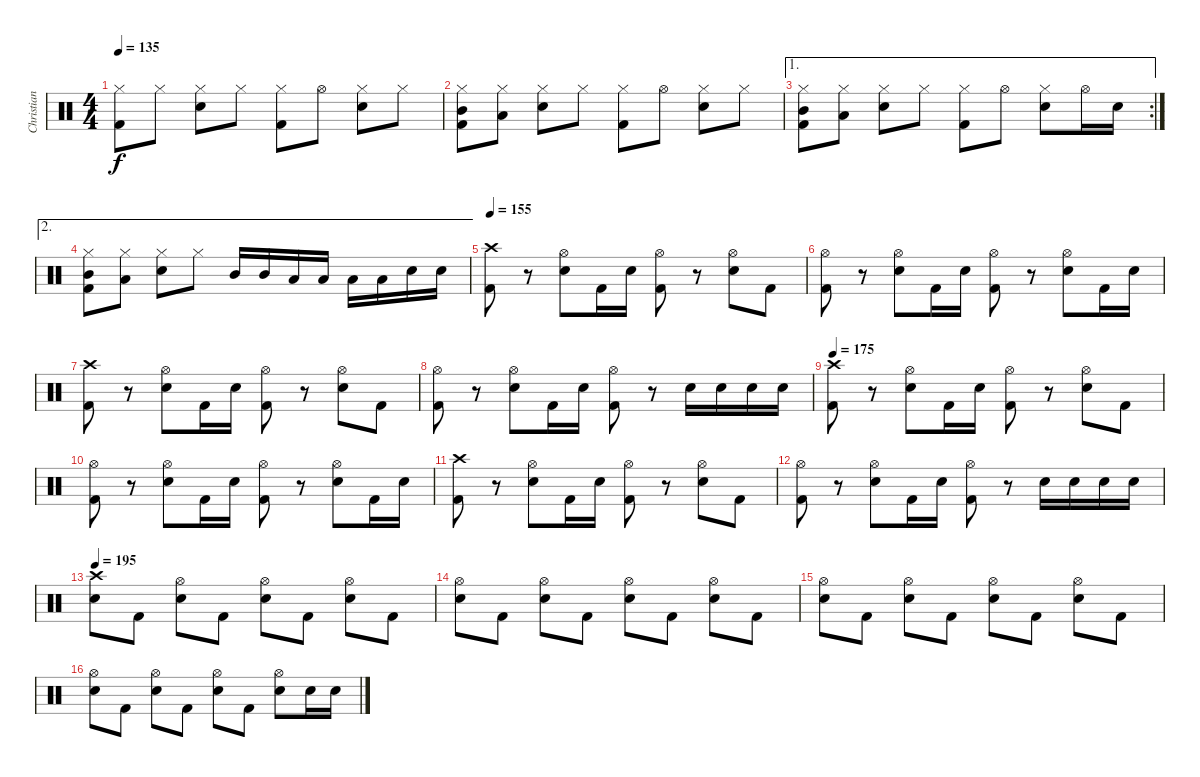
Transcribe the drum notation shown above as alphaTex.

\track ("Christian" "Christian") {instrument percussion}
\staff {score}
\articulation defaults
\ts (4 4)
\tempo 135
\clef neutral
\ks c
("Hi-Hat (closed)" "Kick (hit) 2").8{dy f} "Hi-Hat (closed)".8 ("Hi-Hat (closed)" "Snare (hit) 2").8 "Hi-Hat (closed)".8 ("Hi-Hat (closed)" "Kick (hit) 2").8 "Hi-Hat (open)".8 ("Hi-Hat (closed)" "Snare (hit) 2").8 "Hi-Hat (closed)".8 |
("Hi-Hat (closed)" "Mid Tom (hit)" "Kick (hit) 2").8 ("Hi-Hat (closed)" "Low Tom (hit)").8 ("Hi-Hat (closed)" "Snare (hit) 2").8 "Hi-Hat (closed)".8 ("Hi-Hat (closed)" "Kick (hit) 2").8 "Hi-Hat (open)".8 ("Hi-Hat (closed)" "Snare (hit) 2").8 "Hi-Hat (closed)".8 |
\ae 1
\rc 2
("Hi-Hat (closed)" "Mid Tom (hit)" "Kick (hit) 2").8 ("Hi-Hat (closed)" "Low Tom (hit)").8 ("Hi-Hat (closed)" "Snare (hit) 2").8 "Hi-Hat (closed)".8 ("Hi-Hat (closed)" "Kick (hit) 2").8 "Hi-Hat (open)".8 ("Hi-Hat (closed)" "Snare (hit) 2").8 "Hi-Hat (open)".16 "Snare (hit) 2".16 |
\ae 2
("Hi-Hat (closed)" "Mid Tom (hit)" "Kick (hit) 2").8 ("Hi-Hat (closed)" "Low Tom (hit)").8 ("Hi-Hat (closed)" "Snare (hit) 2").8 "Hi-Hat (closed)".8 "Mid Tom (hit)".16 "Mid Tom (hit)".16 "Low Tom (hit)".16 "Low Tom (hit)".16 "Low Floor Tom (hit)".16 "Low Floor Tom (hit)".16 "Snare (hit) 2".16 "Snare (hit) 2".16 |
\tempo 155
("Crash high (hit)" "Kick (hit) 2").8 r.8 ("Hi-Hat (open)" "Snare (hit) 2").8 "Kick (hit) 2".16 "Snare (hit) 2".16 ("Hi-Hat (open)" "Kick (hit) 2").8 r.8 ("Hi-Hat (open)" "Snare (hit) 2").8 "Kick (hit) 2".8 |
("Hi-Hat (open)" "Kick (hit) 2").8 r.8 ("Hi-Hat (open)" "Snare (hit) 2").8 "Kick (hit) 2".16 "Snare (hit) 2".16 ("Hi-Hat (open)" "Kick (hit) 2").8 r.8 ("Hi-Hat (open)" "Snare (hit) 2").8 "Kick (hit) 2".16 "Snare (hit) 2".16 |
("Crash high (hit)" "Kick (hit) 2").8 r.8 ("Hi-Hat (open)" "Snare (hit) 2").8 "Kick (hit) 2".16 "Snare (hit) 2".16 ("Hi-Hat (open)" "Kick (hit) 2").8 r.8 ("Hi-Hat (open)" "Snare (hit) 2").8 "Kick (hit) 2".8 |
("Hi-Hat (open)" "Kick (hit) 2").8 r.8 ("Hi-Hat (open)" "Snare (hit) 2").8 "Kick (hit) 2".16 "Snare (hit) 2".16 ("Hi-Hat (open)" "Kick (hit) 2").8 r.8 "Snare (hit) 2".16 "Snare (hit) 2".16 "Snare (hit) 2".16 "Snare (hit) 2".16 |
\tempo 175
("Crash high (hit)" "Kick (hit) 2").8 r.8 ("Hi-Hat (open)" "Snare (hit) 2").8 "Kick (hit) 2".16 "Snare (hit) 2".16 ("Hi-Hat (open)" "Kick (hit) 2").8 r.8 ("Hi-Hat (open)" "Snare (hit) 2").8 "Kick (hit) 2".8 |
("Hi-Hat (open)" "Kick (hit) 2").8 r.8 ("Hi-Hat (open)" "Snare (hit) 2").8 "Kick (hit) 2".16 "Snare (hit) 2".16 ("Hi-Hat (open)" "Kick (hit) 2").8 r.8 ("Hi-Hat (open)" "Snare (hit) 2").8 "Kick (hit) 2".16 "Snare (hit) 2".16 |
("Crash high (hit)" "Kick (hit) 2").8 r.8 ("Hi-Hat (open)" "Snare (hit) 2").8 "Kick (hit) 2".16 "Snare (hit) 2".16 ("Hi-Hat (open)" "Kick (hit) 2").8 r.8 ("Hi-Hat (open)" "Snare (hit) 2").8 "Kick (hit) 2".8 |
("Hi-Hat (open)" "Kick (hit) 2").8 r.8 ("Hi-Hat (open)" "Snare (hit) 2").8 "Kick (hit) 2".16 "Snare (hit) 2".16 ("Hi-Hat (open)" "Kick (hit) 2").8 r.8 "Snare (hit) 2".16 "Snare (hit) 2".16 "Snare (hit) 2".16 "Snare (hit) 2".16 |
\tempo 195
("Crash high (hit)" "Snare (hit) 2").8 "Kick (hit) 2".8 ("Hi-Hat (open)" "Snare (hit) 2").8 "Kick (hit) 2".8 ("Hi-Hat (open)" "Snare (hit) 2").8 "Kick (hit) 2".8 ("Hi-Hat (open)" "Snare (hit) 2").8 "Kick (hit) 2".8 |
("Hi-Hat (open)" "Snare (hit) 2").8 "Kick (hit) 2".8 ("Hi-Hat (open)" "Snare (hit) 2").8 "Kick (hit) 2".8 ("Hi-Hat (open)" "Snare (hit) 2").8 "Kick (hit) 2".8 ("Hi-Hat (open)" "Snare (hit) 2").8 "Kick (hit) 2".8 |
("Hi-Hat (open)" "Snare (hit) 2").8 "Kick (hit) 2".8 ("Hi-Hat (open)" "Snare (hit) 2").8 "Kick (hit) 2".8 ("Hi-Hat (open)" "Snare (hit) 2").8 "Kick (hit) 2".8 ("Hi-Hat (open)" "Snare (hit) 2").8 "Kick (hit) 2".8 |
("Hi-Hat (open)" "Snare (hit) 2").8 "Kick (hit) 2".8 ("Hi-Hat (open)" "Snare (hit) 2").8 "Kick (hit) 2".8 ("Hi-Hat (open)" "Snare (hit) 2").8 "Kick (hit) 2".8 ("Hi-Hat (open)" "Snare (hit) 2").8 "Snare (hit) 2".16 "Snare (hit) 2".16
